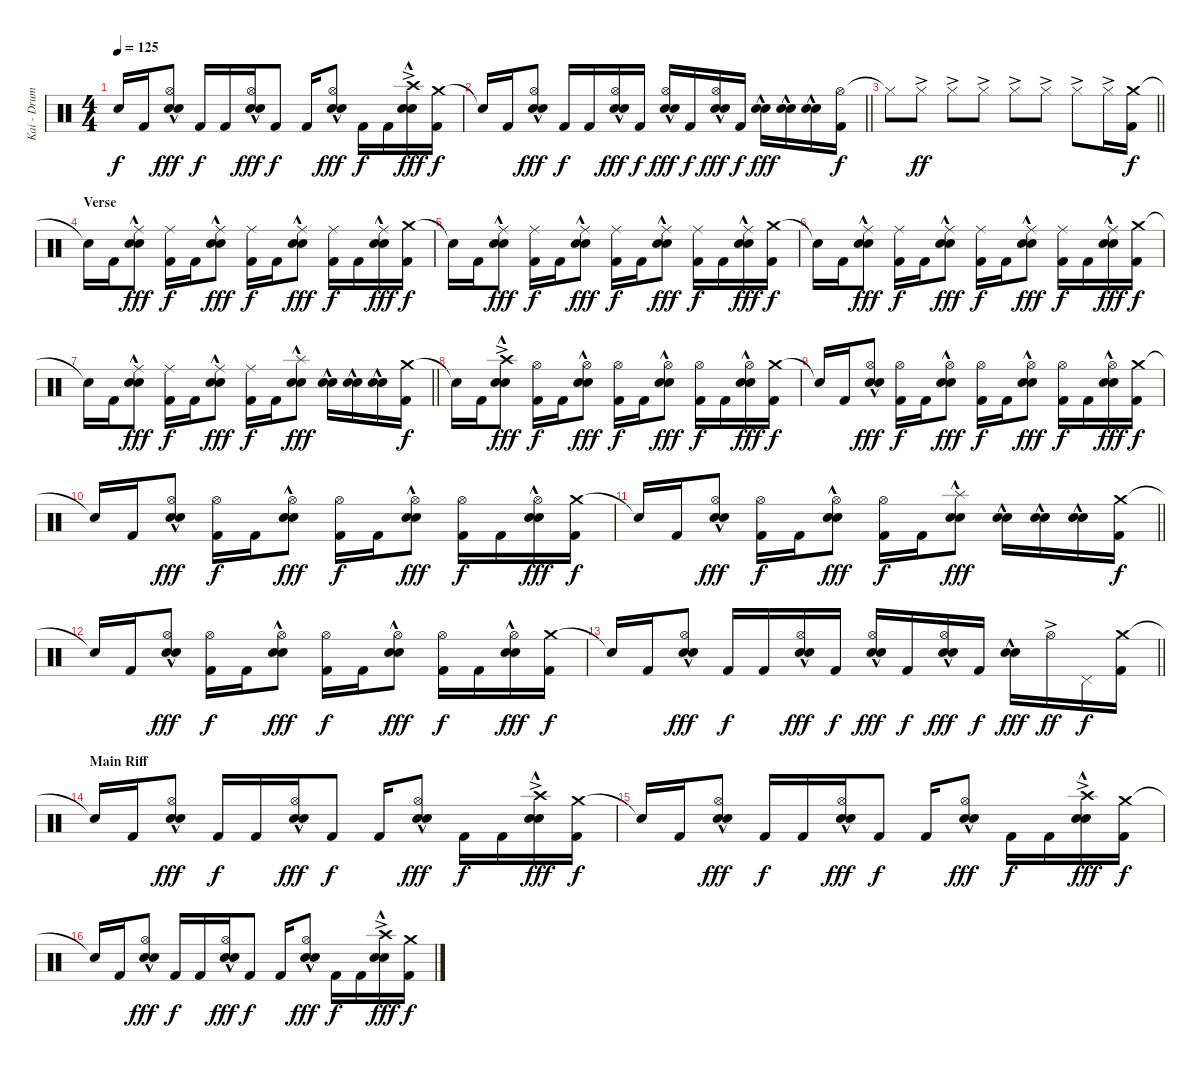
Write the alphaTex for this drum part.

\track ("Kai - Drums" "Kai - Drum") {instrument percussion}
\staff {score}
\articulation defaults
\ts (4 4)
\tempo 125
\clef neutral
\ks c "Snare (hit)"{t}.16{dy f} "Kick (hit) 2".16
("Hi-Hat (open)" "Electric Snare (hit)"{hac} "Snare (hit) 2").8{dy fff} "Kick (hit) 2".16{dy f} "Kick (hit) 2".16 ("Hi-Hat (open)" "Electric Snare (hit)"{hac} "Snare (hit) 2").16{dy fff} "Kick (hit) 2".8{dy f} "Kick (hit) 2".16 ("Hi-Hat (open)" "Electric Snare (hit)"{hac} "Snare (hit) 2").8{dy fff} "Kick (hit) 2".16{dy f} "Kick (hit) 2".16 ("Crash high (hit)"{ac} "Electric Snare (hit)"{hac} "Snare (hit) 2").16{dy fff} ("Crash medium (hit)" "Kick (hit) 2").16{dy f} |
\barLineRight lightlight "Snare (hit)"{t}.16 "Kick (hit) 2".16
("Hi-Hat (open)" "Electric Snare (hit)"{hac} "Snare (hit) 2").8{dy fff} "Kick (hit) 2".16{dy f} "Kick (hit) 2".16 ("Hi-Hat (open)" "Electric Snare (hit)"{hac} "Snare (hit) 2").16{dy fff} "Kick (hit) 2".16{dy f} ("Hi-Hat (open)" "Electric Snare (hit)"{hac} "Snare (hit) 2").16{dy fff} "Kick (hit) 2".16{dy f} ("Hi-Hat (open)" "Electric Snare (hit)"{hac} "Snare (hit) 2").16{dy fff} "Kick (hit) 2".16{dy f} ("Electric Snare (hit)"{hac} "Snare (hit) 2").16{dy fff} ("Electric Snare (hit)"{hac} "Snare (hit) 2").16 ("Electric Snare (hit)"{hac} "Snare (hit) 2").16 ("Hi-Hat (open)" "Kick (hit) 2").16{dy f} |
\section ("" "")
\barLineRight lightlight "Hi-Hat (closed)"{t}.8 "Hi-Hat (closed)"{ac}.8{dy ff} "Hi-Hat (closed)"{ac}.8 "Hi-Hat (closed)"{ac}.8 "Hi-Hat (closed)"{ac}.8 "Hi-Hat (closed)"{ac}.8 "Hi-Hat (closed)"{ac}.8 "Hi-Hat (closed)"{ac}.16
("Crash medium (hit)" "Kick (hit) 2").16{dy f} |
\section ("" "Verse")
"Snare (hit)"{t}.16 "Kick (hit) 2".16 ("Ride (middle)" "Electric Snare (hit)"{hac} "Snare (hit) 2").8{dy fff} ("Ride (middle)" "Kick (hit) 2").16{dy f} "Kick (hit) 2".16 ("Ride (middle)" "Electric Snare (hit)"{hac} "Snare (hit) 2").8{dy fff} ("Ride (middle)" "Kick (hit) 2").16{dy f} "Kick (hit) 2".16 ("Ride (middle)" "Electric Snare (hit)"{hac} "Snare (hit) 2").8{dy fff} ("Ride (middle)" "Kick (hit) 2").16{dy f} "Kick (hit) 2".16 ("Ride (middle)" "Electric Snare (hit)"{hac} "Snare (hit) 2").16{dy fff} ("Crash medium (hit)" "Kick (hit) 2").16{dy f} |
"Snare (hit)"{t}.16 "Kick (hit) 2".16 ("Ride (middle)" "Electric Snare (hit)"{hac} "Snare (hit) 2").8{dy fff} ("Ride (middle)" "Kick (hit) 2").16{dy f} "Kick (hit) 2".16 ("Ride (middle)" "Electric Snare (hit)"{hac} "Snare (hit) 2").8{dy fff} ("Ride (middle)" "Kick (hit) 2").16{dy f} "Kick (hit) 2".16 ("Ride (middle)" "Electric Snare (hit)"{hac} "Snare (hit) 2").8{dy fff} ("Ride (middle)" "Kick (hit) 2").16{dy f} "Kick (hit) 2".16 ("Ride (middle)" "Electric Snare (hit)"{hac} "Snare (hit) 2").16{dy fff} ("Crash medium (hit)" "Kick (hit) 2").16{dy f} |
"Snare (hit)"{t}.16 "Kick (hit) 2".16 ("Ride (middle)" "Electric Snare (hit)"{hac} "Snare (hit) 2").8{dy fff} ("Ride (middle)" "Kick (hit) 2").16{dy f} "Kick (hit) 2".16 ("Ride (middle)" "Electric Snare (hit)"{hac} "Snare (hit) 2").8{dy fff} ("Ride (middle)" "Kick (hit) 2").16{dy f} "Kick (hit) 2".16 ("Ride (middle)" "Electric Snare (hit)"{hac} "Snare (hit) 2").8{dy fff} ("Ride (middle)" "Kick (hit) 2").16{dy f} "Kick (hit) 2".16 ("Ride (middle)" "Electric Snare (hit)"{hac} "Snare (hit) 2").16{dy fff} ("Crash medium (hit)" "Kick (hit) 2").16{dy f} |
\barLineRight lightlight "Snare (hit)"{t}.16 "Kick (hit) 2".16
("Ride (middle)" "Electric Snare (hit)"{hac} "Snare (hit) 2").8{dy fff} ("Ride (middle)" "Kick (hit) 2").16{dy f} "Kick (hit) 2".16 ("Ride (middle)" "Electric Snare (hit)"{hac} "Snare (hit) 2").8{dy fff} ("Ride (middle)" "Kick (hit) 2").16{dy f} "Kick (hit) 2".16 ("Splash (hit)"{hac} "Electric Snare (hit)"{hac} "Snare (hit) 2").8{dy fff} ("Electric Snare (hit)"{hac} "Snare (hit) 2").16 ("Electric Snare (hit)"{hac} "Snare (hit) 2").16 ("Electric Snare (hit)"{hac} "Snare (hit) 2").16 ("Crash medium (hit)" "Kick (hit) 2").16{dy f} |
"Snare (hit)"{t}.16 "Kick (hit) 2".16 ("Crash high (hit)"{ac} "Electric Snare (hit)"{hac} "Snare (hit) 2").8{dy fff} ("Hi-Hat (open)" "Kick (hit) 2").16{dy f} "Kick (hit) 2".16 ("Hi-Hat (open)" "Electric Snare (hit)"{hac} "Snare (hit) 2").8{dy fff} ("Hi-Hat (open)" "Kick (hit) 2").16{dy f} "Kick (hit) 2".16 ("Hi-Hat (open)" "Electric Snare (hit)"{hac} "Snare (hit) 2").8{dy fff} ("Hi-Hat (open)" "Kick (hit) 2").16{dy f} "Kick (hit) 2".16 ("Hi-Hat (open)" "Electric Snare (hit)"{hac} "Snare (hit) 2").16{dy fff} ("Crash medium (hit)" "Kick (hit) 2").16{dy f} |
"Snare (hit)"{t}.16 "Kick (hit) 2".16 ("Hi-Hat (open)" "Electric Snare (hit)"{hac} "Snare (hit) 2").8{dy fff} ("Hi-Hat (open)" "Kick (hit) 2").16{dy f} "Kick (hit) 2".16 ("Hi-Hat (open)" "Electric Snare (hit)"{hac} "Snare (hit) 2").8{dy fff} ("Hi-Hat (open)" "Kick (hit) 2").16{dy f} "Kick (hit) 2".16 ("Hi-Hat (open)" "Electric Snare (hit)"{hac} "Snare (hit) 2").8{dy fff} ("Hi-Hat (open)" "Kick (hit) 2").16{dy f} "Kick (hit) 2".16 ("Hi-Hat (open)" "Electric Snare (hit)"{hac} "Snare (hit) 2").16{dy fff} ("Crash medium (hit)" "Kick (hit) 2").16{dy f} |
"Snare (hit)"{t}.16 "Kick (hit) 2".16 ("Hi-Hat (open)" "Electric Snare (hit)"{hac} "Snare (hit) 2").8{dy fff} ("Hi-Hat (open)" "Kick (hit) 2").16{dy f} "Kick (hit) 2".16 ("Hi-Hat (open)" "Electric Snare (hit)"{hac} "Snare (hit) 2").8{dy fff} ("Hi-Hat (open)" "Kick (hit) 2").16{dy f} "Kick (hit) 2".16 ("Hi-Hat (open)" "Electric Snare (hit)"{hac} "Snare (hit) 2").8{dy fff} ("Hi-Hat (open)" "Kick (hit) 2").16{dy f} "Kick (hit) 2".16 ("Hi-Hat (open)" "Electric Snare (hit)"{hac} "Snare (hit) 2").16{dy fff} ("Crash medium (hit)" "Kick (hit) 2").16{dy f} |
\barLineRight lightlight "Snare (hit)"{t}.16 "Kick (hit) 2".16
("Hi-Hat (open)" "Electric Snare (hit)"{hac} "Snare (hit) 2").8{dy fff} ("Hi-Hat (open)" "Kick (hit) 2").16{dy f} "Kick (hit) 2".16 ("Hi-Hat (open)" "Electric Snare (hit)"{hac} "Snare (hit) 2").8{dy fff} ("Hi-Hat (open)" "Kick (hit) 2").16{dy f} "Kick (hit) 2".16 ("Splash (hit)"{hac} "Electric Snare (hit)"{hac} "Snare (hit) 2").8{dy fff} ("Electric Snare (hit)"{hac} "Snare (hit) 2").16 ("Electric Snare (hit)"{hac} "Snare (hit) 2").16 ("Electric Snare (hit)"{hac} "Snare (hit) 2").16 ("Crash medium (hit)" "Kick (hit) 2").16{dy f} |
"Snare (hit)"{t}.16 "Kick (hit) 2".16 ("Hi-Hat (open)" "Electric Snare (hit)"{hac} "Snare (hit) 2").8{dy fff} ("Hi-Hat (open)" "Kick (hit) 2").16{dy f} "Kick (hit) 2".16 ("Hi-Hat (open)" "Electric Snare (hit)"{hac} "Snare (hit) 2").8{dy fff} ("Hi-Hat (open)" "Kick (hit) 2").16{dy f} "Kick (hit) 2".16 ("Hi-Hat (open)" "Electric Snare (hit)"{hac} "Snare (hit) 2").8{dy fff} ("Hi-Hat (open)" "Kick (hit) 2").16{dy f} "Kick (hit) 2".16 ("Hi-Hat (open)" "Electric Snare (hit)"{hac} "Snare (hit) 2").16{dy fff} ("Crash medium (hit)" "Kick (hit) 2").16{dy f} |
\barLineRight lightlight "Snare (hit)"{t}.16 "Kick (hit) 2".16
("Hi-Hat (open)" "Electric Snare (hit)"{hac} "Snare (hit) 2").8{dy fff} "Kick (hit) 2".16{dy f} "Kick (hit) 2".16 ("Hi-Hat (open)" "Electric Snare (hit)"{hac} "Snare (hit) 2").16{dy fff} "Kick (hit) 2".16{dy f} ("Hi-Hat (open)" "Electric Snare (hit)"{hac} "Snare (hit) 2").16{dy fff} "Kick (hit) 2".16{dy f} ("Hi-Hat (open)" "Electric Snare (hit)"{hac} "Snare (hit) 2").16{dy fff} "Kick (hit) 2".16{dy f} ("Electric Snare (hit)"{hac} "Snare (hit) 2").16{dy fff} "Hi-Hat (open)"{ac}.16{dy ff} "Pedal Hi-Hat (hit)".16{dy f} ("Crash medium (hit)" "Kick (hit) 2").16 |
\section ("" "Main Riff")
"Snare (hit)"{t}.16 "Kick (hit) 2".16 ("Hi-Hat (open)" "Electric Snare (hit)"{hac} "Snare (hit) 2").8{dy fff} "Kick (hit) 2".16{dy f} "Kick (hit) 2".16 ("Hi-Hat (open)" "Electric Snare (hit)"{hac} "Snare (hit) 2").16{dy fff} "Kick (hit) 2".8{dy f} "Kick (hit) 2".16 ("Hi-Hat (open)" "Electric Snare (hit)"{hac} "Snare (hit) 2").8{dy fff} "Kick (hit) 2".16{dy f} "Kick (hit) 2".16 ("Crash high (hit)"{ac} "Electric Snare (hit)"{hac} "Snare (hit) 2").16{dy fff} ("Crash medium (hit)" "Kick (hit) 2").16{dy f} |
"Snare (hit)"{t}.16 "Kick (hit) 2".16 ("Hi-Hat (open)" "Electric Snare (hit)"{hac} "Snare (hit) 2").8{dy fff} "Kick (hit) 2".16{dy f} "Kick (hit) 2".16 ("Hi-Hat (open)" "Electric Snare (hit)"{hac} "Snare (hit) 2").16{dy fff} "Kick (hit) 2".8{dy f} "Kick (hit) 2".16 ("Hi-Hat (open)" "Electric Snare (hit)"{hac} "Snare (hit) 2").8{dy fff} "Kick (hit) 2".16{dy f} "Kick (hit) 2".16 ("Crash high (hit)"{ac} "Electric Snare (hit)"{hac} "Snare (hit) 2").16{dy fff} ("Crash medium (hit)" "Kick (hit) 2").16{dy f} |
"Snare (hit)"{t}.16 "Kick (hit) 2".16 ("Hi-Hat (open)" "Electric Snare (hit)"{hac} "Snare (hit) 2").8{dy fff} "Kick (hit) 2".16{dy f} "Kick (hit) 2".16 ("Hi-Hat (open)" "Electric Snare (hit)"{hac} "Snare (hit) 2").16{dy fff} "Kick (hit) 2".8{dy f} "Kick (hit) 2".16 ("Hi-Hat (open)" "Electric Snare (hit)"{hac} "Snare (hit) 2").8{dy fff} "Kick (hit) 2".16{dy f} "Kick (hit) 2".16 ("Crash high (hit)"{ac} "Electric Snare (hit)"{hac} "Snare (hit) 2").16{dy fff} ("Crash medium (hit)" "Kick (hit) 2").16{dy f}
